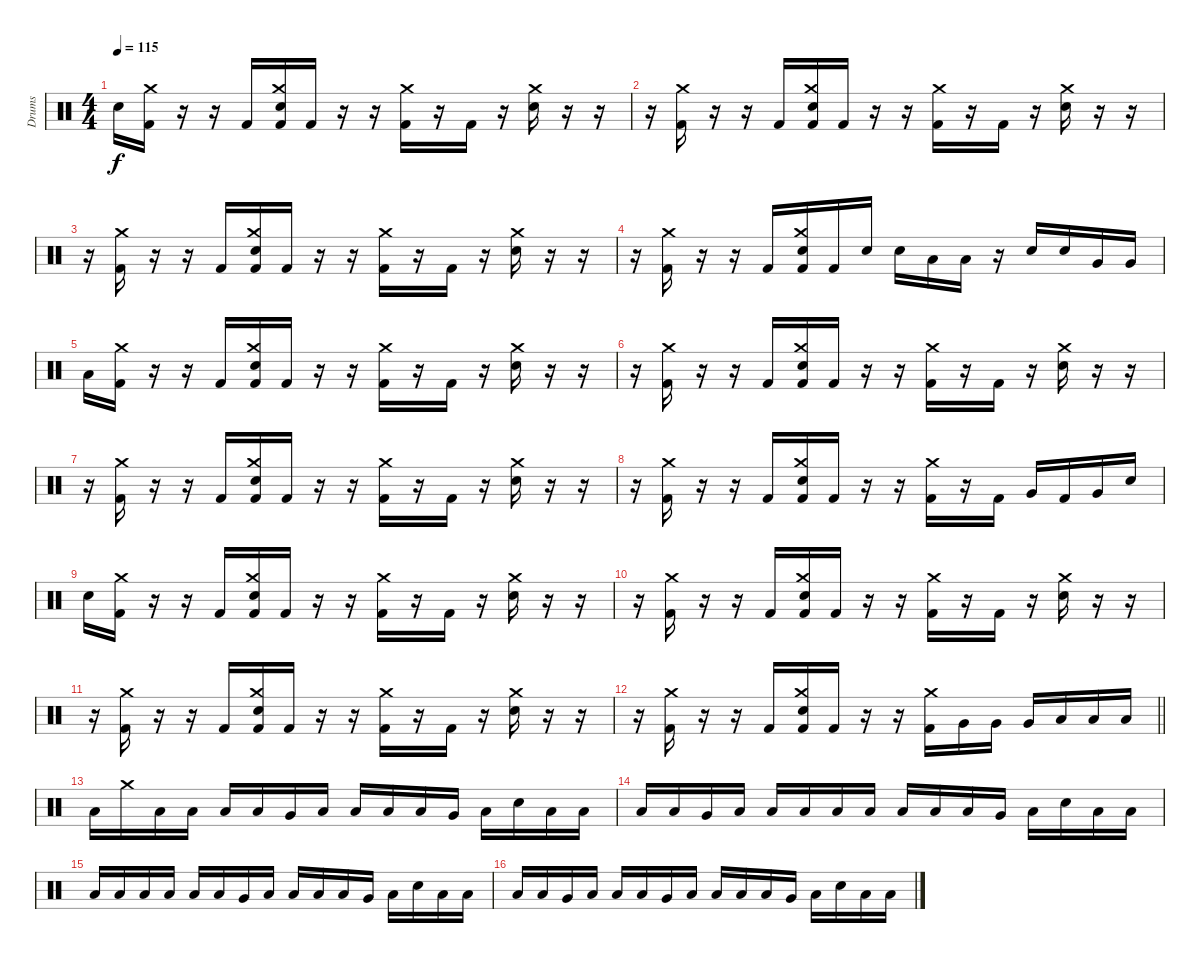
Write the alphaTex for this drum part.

\track ("Drums" "Drums") {instrument percussion}
\staff {score}
\articulation defaults
\ts (4 4)
\tempo 115
\clef neutral
\ks c "Snare (hit) 2".16{dy f}
("Crash medium (hit)" "Kick (hit) 2").16 r.16 r.16 "Kick (hit) 2".16 ("Crash medium (hit)" "Snare (hit) 2" "Kick (hit) 2").16 "Kick (hit) 2".16 r.16 r.16 ("Crash medium (hit)" "Kick (hit) 2").16 r.16 "Kick (hit) 2".16 r.16 ("Crash medium (hit)" "Snare (hit) 2").16 r.16 r.16 |
r.16 ("Crash medium (hit)" "Kick (hit) 2").16 r.16 r.16 "Kick (hit) 2".16 ("Crash medium (hit)" "Snare (hit) 2" "Kick (hit) 2").16 "Kick (hit) 2".16 r.16 r.16 ("Crash medium (hit)" "Kick (hit) 2").16 r.16 "Kick (hit) 2".16 r.16 ("Crash medium (hit)" "Snare (hit) 2").16 r.16 r.16 |
r.16 ("Crash medium (hit)" "Kick (hit) 2").16 r.16 r.16 "Kick (hit) 2".16 ("Crash medium (hit)" "Snare (hit) 2" "Kick (hit) 2").16 "Kick (hit) 2".16 r.16 r.16 ("Crash medium (hit)" "Kick (hit) 2").16 r.16 "Kick (hit) 2".16 r.16 ("Crash medium (hit)" "Snare (hit) 2").16 r.16 r.16 |
r.16 ("Crash medium (hit)" "Kick (hit) 2").16 r.16 r.16 "Kick (hit) 2".16 ("Crash medium (hit)" "Snare (hit) 2" "Kick (hit) 2").16 "Kick (hit) 2".16 "Snare (hit) 2".16 "Snare (hit) 2".16 "Low Tom (hit)".16 "Low Tom (hit)".16 r.16 "Snare (hit) 2".16 "Snare (hit) 2".16 "Very Low Tom (hit)".16 "Very Low Tom (hit)".16 |
"Low Floor Tom (hit)".16 ("Crash medium (hit)" "Kick (hit) 2").16 r.16 r.16 "Kick (hit) 2".16 ("Crash medium (hit)" "Snare (hit) 2" "Kick (hit) 2").16 "Kick (hit) 2".16 r.16 r.16 ("Crash medium (hit)" "Kick (hit) 2").16 r.16 "Kick (hit) 2".16 r.16 ("Crash medium (hit)" "Snare (hit) 2").16 r.16 r.16 |
r.16 ("Crash medium (hit)" "Kick (hit) 2").16 r.16 r.16 "Kick (hit) 2".16 ("Crash medium (hit)" "Snare (hit) 2" "Kick (hit) 2").16 "Kick (hit) 2".16 r.16 r.16 ("Crash medium (hit)" "Kick (hit) 2").16 r.16 "Kick (hit) 2".16 r.16 ("Crash medium (hit)" "Snare (hit) 2").16 r.16 r.16 |
r.16 ("Crash medium (hit)" "Kick (hit) 2").16 r.16 r.16 "Kick (hit) 2".16 ("Crash medium (hit)" "Snare (hit) 2" "Kick (hit) 2").16 "Kick (hit) 2".16 r.16 r.16 ("Crash medium (hit)" "Kick (hit) 2").16 r.16 "Kick (hit) 2".16 r.16 ("Crash medium (hit)" "Snare (hit) 2").16 r.16 r.16 |
r.16 ("Crash medium (hit)" "Kick (hit) 2").16 r.16 r.16 "Kick (hit) 2".16 ("Crash medium (hit)" "Snare (hit) 2" "Kick (hit) 2").16 "Kick (hit) 2".16 r.16 r.16 ("Crash medium (hit)" "Kick (hit) 2").16 r.16 "Kick (hit) 2".16 "Very Low Tom (hit)".16 "Kick (hit) 2".16 "Very Low Tom (hit)".16 "Snare (hit) 2".16 |
"Snare (hit) 2".16 ("Crash medium (hit)" "Kick (hit) 2").16 r.16 r.16 "Kick (hit) 2".16 ("Crash medium (hit)" "Snare (hit) 2" "Kick (hit) 2").16 "Kick (hit) 2".16 r.16 r.16 ("Crash medium (hit)" "Kick (hit) 2").16 r.16 "Kick (hit) 2".16 r.16 ("Crash medium (hit)" "Snare (hit) 2").16 r.16 r.16 |
r.16 ("Crash medium (hit)" "Kick (hit) 2").16 r.16 r.16 "Kick (hit) 2".16 ("Crash medium (hit)" "Snare (hit) 2" "Kick (hit) 2").16 "Kick (hit) 2".16 r.16 r.16 ("Crash medium (hit)" "Kick (hit) 2").16 r.16 "Kick (hit) 2".16 r.16 ("Crash medium (hit)" "Snare (hit) 2").16 r.16 r.16 |
r.16 ("Crash medium (hit)" "Kick (hit) 2").16 r.16 r.16 "Kick (hit) 2".16 ("Crash medium (hit)" "Snare (hit) 2" "Kick (hit) 2").16 "Kick (hit) 2".16 r.16 r.16 ("Crash medium (hit)" "Kick (hit) 2").16 r.16 "Kick (hit) 2".16 r.16 ("Crash medium (hit)" "Snare (hit) 2").16 r.16 r.16 |
\barLineRight lightlight
r.16 ("Crash medium (hit)" "Kick (hit) 2").16 r.16 r.16 "Kick (hit) 2".16 ("Crash medium (hit)" "Snare (hit) 2" "Kick (hit) 2").16 "Kick (hit) 2".16 r.16 r.16 ("Crash medium (hit)" "Kick (hit) 2").16 "Very Low Tom (hit)".16 "Very Low Tom (hit)".16 "Very Low Tom (hit)".16 "Low Floor Tom (hit)".16 "Low Floor Tom (hit)".16 "Low Floor Tom (hit)".16 |
"Low Floor Tom (hit)".16 "Crash medium (hit)".16 "Low Floor Tom (hit)".16 "Low Floor Tom (hit)".16 "Low Floor Tom (hit)".16 "Low Floor Tom (hit)".16 "Very Low Tom (hit)".16 "Low Floor Tom (hit)".16 "Low Floor Tom (hit)".16 "Low Floor Tom (hit)".16 "Low Floor Tom (hit)".16 "Very Low Tom (hit)".16 "Low Floor Tom (hit)".16 "Snare (hit) 2".16 "Low Floor Tom (hit)".16 "Low Floor Tom (hit)".16 |
"Low Floor Tom (hit)".16 "Low Floor Tom (hit)".16 "Very Low Tom (hit)".16 "Low Floor Tom (hit)".16 "Low Floor Tom (hit)".16 "Low Floor Tom (hit)".16 "Low Floor Tom (hit)".16 "Low Floor Tom (hit)".16 "Low Floor Tom (hit)".16 "Low Floor Tom (hit)".16 "Low Floor Tom (hit)".16 "Very Low Tom (hit)".16 "Low Floor Tom (hit)".16 "Snare (hit) 2".16 "Low Floor Tom (hit)".16 "Low Floor Tom (hit)".16 |
"Low Floor Tom (hit)".16 "Low Tom (hit)".16 "Low Floor Tom (hit)".16 "Low Floor Tom (hit)".16 "Low Floor Tom (hit)".16 "Low Floor Tom (hit)".16 "Very Low Tom (hit)".16 "Low Floor Tom (hit)".16 "Low Floor Tom (hit)".16 "Low Floor Tom (hit)".16 "Low Floor Tom (hit)".16 "Very Low Tom (hit)".16 "Low Floor Tom (hit)".16 "Snare (hit) 2".16 "Low Floor Tom (hit)".16 "Low Floor Tom (hit)".16 |
"Low Floor Tom (hit)".16 "Low Floor Tom (hit)".16 "Very Low Tom (hit)".16 "Low Floor Tom (hit)".16 "Low Floor Tom (hit)".16 "Low Floor Tom (hit)".16 "Very Low Tom (hit)".16 "Low Floor Tom (hit)".16 "Low Floor Tom (hit)".16 "Low Floor Tom (hit)".16 "Low Floor Tom (hit)".16 "Very Low Tom (hit)".16 "Low Floor Tom (hit)".16 "Snare (hit) 2".16 "Low Floor Tom (hit)".16 "Low Floor Tom (hit)".16
